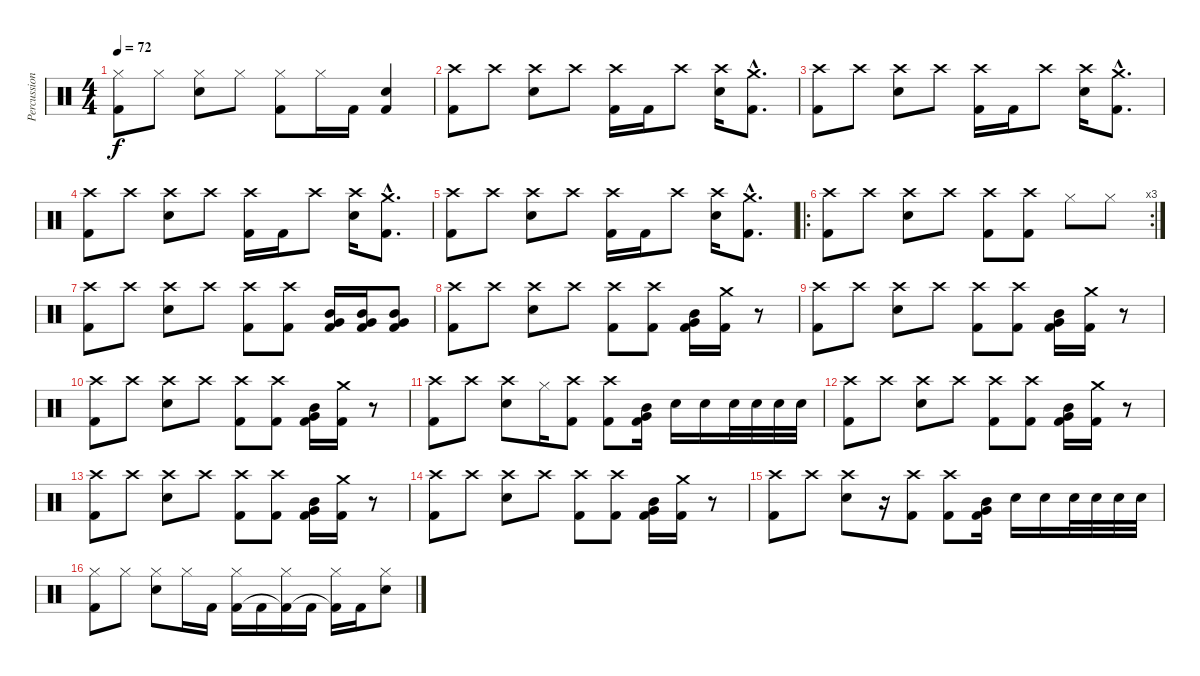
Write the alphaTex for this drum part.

\track ("Percussions" "Percussion") {instrument percussion}
\staff {score}
\articulation defaults
\ts (4 4)
\tempo 72
\clef neutral
\ks c
("Kick (hit) 2" "Hi-Hat (closed)").8{dy f} "Hi-Hat (closed)".8 ("Electric Snare (hit)" "Hi-Hat (closed)").8 "Hi-Hat (closed)".8 ("Kick (hit) 2" "Hi-Hat (closed)").8 "Hi-Hat (closed)".16 "Kick (hit) 2".16 ("Kick (hit) 2" "Electric Snare (hit)").4 |
("Crash high (hit)" "Kick (hit) 2").8 "Crash high (hit)".8 ("Crash high (hit)" "Electric Snare (hit)").8 "Crash high (hit)".8 ("Crash high (hit)" "Kick (hit) 2").16 "Kick (hit) 2".16 "Crash high (hit)".8 ("Crash high (hit)" "Electric Snare (hit)").16 ("Crash medium (hit)"{hac} "Kick (hit) 2"{hac}).8{d} |
("Crash high (hit)" "Kick (hit) 2").8 "Crash high (hit)".8 ("Crash high (hit)" "Electric Snare (hit)").8 "Crash high (hit)".8 ("Crash high (hit)" "Kick (hit) 2").16 "Kick (hit) 2".16 "Crash high (hit)".8 ("Crash high (hit)" "Electric Snare (hit)").16 ("Crash medium (hit)"{hac} "Kick (hit) 2"{hac}).8{d} |
("Crash high (hit)" "Kick (hit) 2").8 "Crash high (hit)".8 ("Crash high (hit)" "Electric Snare (hit)").8 "Crash high (hit)".8 ("Crash high (hit)" "Kick (hit) 2").16 "Kick (hit) 2".16 "Crash high (hit)".8 ("Crash high (hit)" "Electric Snare (hit)").16 ("Crash medium (hit)"{hac} "Kick (hit) 2"{hac}).8{d} |
("Crash high (hit)" "Kick (hit) 2").8 "Crash high (hit)".8 ("Crash high (hit)" "Electric Snare (hit)").8 "Crash high (hit)".8 ("Crash high (hit)" "Kick (hit) 2").16 "Kick (hit) 2".16 "Crash high (hit)".8 ("Crash high (hit)" "Electric Snare (hit)").16 ("Crash medium (hit)"{hac} "Kick (hit) 2"{hac}).8{d} |
\ro
\rc 3
("Kick (hit) 2" "Crash high (hit)").8 "Crash high (hit)".8 ("Electric Snare (hit)" "Crash high (hit)").8 "Crash high (hit)".8 ("Kick (hit) 2" "Crash high (hit)").8 ("Kick (hit) 2" "Crash high (hit)").8 "Hi-Hat (closed)".8 "Hi-Hat (closed)".8 |
("Kick (hit) 2" "Crash high (hit)").8 "Crash high (hit)".8 ("Electric Snare (hit)" "Crash high (hit)").8 "Crash high (hit)".8 ("Kick (hit) 2" "Crash high (hit)").8 ("Kick (hit) 2" "Crash high (hit)").8 ("Very Low Tom (hit)" "Mid Tom (hit)" "Kick (hit) 2").16 ("Very Low Tom (hit)" "Mid Tom (hit)" "Kick (hit) 2").16 ("Very Low Tom (hit)" "Mid Tom (hit)" "Kick (hit) 2").8 |
("Kick (hit) 2" "Crash high (hit)").8 "Crash high (hit)".8 ("Electric Snare (hit)" "Crash high (hit)").8 "Crash high (hit)".8 ("Kick (hit) 2" "Crash high (hit)").8 ("Kick (hit) 2" "Crash high (hit)").8 ("Very Low Tom (hit)" "Mid Tom (hit)" "Kick (hit) 2").16 ("Crash medium (hit)" "Kick (hit) 2").16 r.8 |
("Kick (hit) 2" "Crash high (hit)").8 "Crash high (hit)".8 ("Electric Snare (hit)" "Crash high (hit)").8 "Crash high (hit)".8 ("Kick (hit) 2" "Crash high (hit)").8 ("Kick (hit) 2" "Crash high (hit)").8 ("Very Low Tom (hit)" "Mid Tom (hit)" "Kick (hit) 2").16 ("Crash medium (hit)" "Kick (hit) 2").16 r.8 |
("Kick (hit) 2" "Crash high (hit)").8 "Crash high (hit)".8 ("Electric Snare (hit)" "Crash high (hit)").8 "Crash high (hit)".8 ("Kick (hit) 2" "Crash high (hit)").8 ("Kick (hit) 2" "Crash high (hit)").8 ("Very Low Tom (hit)" "Mid Tom (hit)" "Kick (hit) 2").16 ("Crash medium (hit)" "Kick (hit) 2").16 r.8 |
("Kick (hit) 2" "Crash high (hit)").8 "Crash high (hit)".8 ("Electric Snare (hit)" "Crash high (hit)").8 "Hi-Hat (closed)".16 ("Kick (hit) 2" "Crash high (hit)").8 ("Kick (hit) 2" "Crash high (hit)").8 ("Very Low Tom (hit)" "Mid Tom (hit)" "Kick (hit) 2").16 "Electric Snare (hit)".16 "Electric Snare (hit)".16 "Electric Snare (hit)".32 "Electric Snare (hit)".32 "Electric Snare (hit)".32 "Electric Snare (hit)".32 |
("Kick (hit) 2" "Crash high (hit)").8 "Crash high (hit)".8 ("Electric Snare (hit)" "Crash high (hit)").8 "Crash high (hit)".8 ("Kick (hit) 2" "Crash high (hit)").8 ("Kick (hit) 2" "Crash high (hit)").8 ("Very Low Tom (hit)" "Mid Tom (hit)" "Kick (hit) 2").16 ("Crash medium (hit)" "Kick (hit) 2").16 r.8 |
("Kick (hit) 2" "Crash high (hit)").8 "Crash high (hit)".8 ("Electric Snare (hit)" "Crash high (hit)").8 "Crash high (hit)".8 ("Kick (hit) 2" "Crash high (hit)").8 ("Kick (hit) 2" "Crash high (hit)").8 ("Very Low Tom (hit)" "Mid Tom (hit)" "Kick (hit) 2").16 ("Crash medium (hit)" "Kick (hit) 2").16 r.8 |
("Kick (hit) 2" "Crash high (hit)").8 "Crash high (hit)".8 ("Electric Snare (hit)" "Crash high (hit)").8 "Crash high (hit)".8 ("Kick (hit) 2" "Crash high (hit)").8 ("Kick (hit) 2" "Crash high (hit)").8 ("Very Low Tom (hit)" "Mid Tom (hit)" "Kick (hit) 2").16 ("Crash medium (hit)" "Kick (hit) 2").16 r.8 |
("Kick (hit) 2" "Crash high (hit)").8 "Crash high (hit)".8 ("Electric Snare (hit)" "Crash high (hit)").8 r.16 ("Kick (hit) 2" "Crash high (hit)").8 ("Kick (hit) 2" "Crash high (hit)").8 ("Very Low Tom (hit)" "Mid Tom (hit)" "Kick (hit) 2").16 "Electric Snare (hit)".16 "Electric Snare (hit)".16 "Electric Snare (hit)".32 "Electric Snare (hit)".32 "Electric Snare (hit)".32 "Electric Snare (hit)".32 |
("Kick (hit) 2" "Hi-Hat (closed)").8 "Hi-Hat (closed)".8 ("Electric Snare (hit)" "Hi-Hat (closed)").8 "Hi-Hat (closed)".16 "Kick (hit) 2".16 ("Hi-Hat (closed)" "Kick (hit) 2").16 "Kick (hit) 2".16 ("Hi-Hat (closed)" "Kick (hit) 2"{t}).16 "Kick (hit) 2".16 ("Hi-Hat (closed)" "Kick (hit) 2"{t}).16 "Kick (hit) 2".16 ("Hi-Hat (closed)" "Electric Snare (hit)").8
